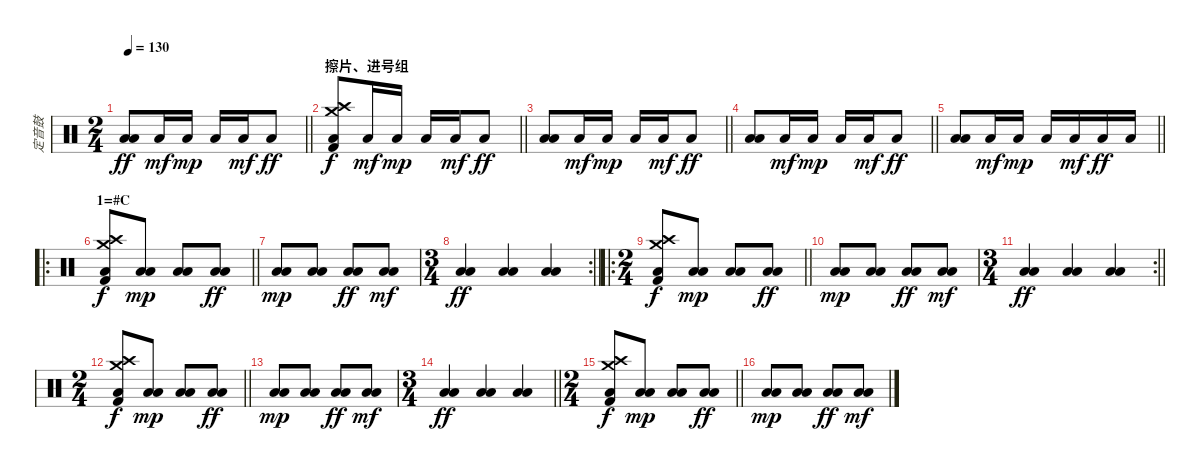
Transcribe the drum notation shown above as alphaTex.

\track ("定音鼓" "定音鼓") {instrument percussion}
\staff {score}
\articulation defaults
\ts (2 4)
\tempo 130
\clef neutral
\barLineRight lightlight
\ks c
("Low Floor Tom (hit)" "Low Floor Tom (hit)").8{dy ff} "Low Floor Tom (hit)".16{dy mf} "Low Floor Tom (hit)".16{dy mp} "Low Floor Tom (hit)".16 "Low Floor Tom (hit)".16{dy mf} "Low Floor Tom (hit)".8{dy ff} |
\section ("" "擦片、进号组")
\barLineRight lightlight
("Crash high (hit)" "Crash medium (hit)" "Kick (hit) 2" "Low Floor Tom (hit)").8{dy f} "Low Floor Tom (hit)".16{dy mf} "Low Floor Tom (hit)".16{dy mp} "Low Floor Tom (hit)".16 "Low Floor Tom (hit)".16{dy mf} "Low Floor Tom (hit)".8{dy ff} |
\barLineRight lightlight
("Low Floor Tom (hit)" "Low Floor Tom (hit)").8 "Low Floor Tom (hit)".16{dy mf} "Low Floor Tom (hit)".16{dy mp} "Low Floor Tom (hit)".16 "Low Floor Tom (hit)".16{dy mf} "Low Floor Tom (hit)".8{dy ff} |
\barLineRight lightlight
("Low Floor Tom (hit)" "Low Floor Tom (hit)").8 "Low Floor Tom (hit)".16{dy mf} "Low Floor Tom (hit)".16{dy mp} "Low Floor Tom (hit)".16 "Low Floor Tom (hit)".16{dy mf} "Low Floor Tom (hit)".8{dy ff} |
\barLineRight lightlight
("Low Floor Tom (hit)" "Low Floor Tom (hit)").8 "Low Floor Tom (hit)".16{dy mf} "Low Floor Tom (hit)".16{dy mp} "Low Floor Tom (hit)".16 "Low Floor Tom (hit)".16{dy mf} "Low Floor Tom (hit)".16{dy ff} "Low Floor Tom (hit)".16 |
\ro
\section ("" "1=#C")
\barLineRight lightlight
("Crash high (hit)" "Crash medium (hit)" "Kick (hit) 2" "Low Floor Tom (hit)").8{dy f} ("Low Floor Tom (hit)" "Low Floor Tom (hit)").8{dy mp} ("Low Floor Tom (hit)" "Low Floor Tom (hit)").8 ("Low Floor Tom (hit)" "Low Floor Tom (hit)").8{dy ff} |
("Low Floor Tom (hit)" "Low Floor Tom (hit)").8{dy mp} ("Low Floor Tom (hit)" "Low Floor Tom (hit)").8 ("Low Floor Tom (hit)" "Low Floor Tom (hit)").8{dy ff} ("Low Floor Tom (hit)" "Low Floor Tom (hit)").8{dy mf} |
\rc 2
\ts (3 4)
\barLineRight lightlight
("Low Floor Tom (hit)" "Low Floor Tom (hit)").4{dy ff} ("Low Floor Tom (hit)" "Low Floor Tom (hit)").4 ("Low Floor Tom (hit)" "Low Floor Tom (hit)").4 |
\ro
\ts (2 4)
\barLineRight lightlight
("Crash high (hit)" "Crash medium (hit)" "Kick (hit) 2" "Low Floor Tom (hit)").8{dy f} ("Low Floor Tom (hit)" "Low Floor Tom (hit)").8{dy mp} ("Low Floor Tom (hit)" "Low Floor Tom (hit)").8 ("Low Floor Tom (hit)" "Low Floor Tom (hit)").8{dy ff} |
("Low Floor Tom (hit)" "Low Floor Tom (hit)").8{dy mp} ("Low Floor Tom (hit)" "Low Floor Tom (hit)").8 ("Low Floor Tom (hit)" "Low Floor Tom (hit)").8{dy ff} ("Low Floor Tom (hit)" "Low Floor Tom (hit)").8{dy mf} |
\rc 2
\ts (3 4)
\barLineRight lightlight
("Low Floor Tom (hit)" "Low Floor Tom (hit)").4{dy ff} ("Low Floor Tom (hit)" "Low Floor Tom (hit)").4 ("Low Floor Tom (hit)" "Low Floor Tom (hit)").4 |
\ts (2 4)
\barLineRight lightlight
("Crash high (hit)" "Crash medium (hit)" "Kick (hit) 2" "Low Floor Tom (hit)").8{dy f} ("Low Floor Tom (hit)" "Low Floor Tom (hit)").8{dy mp} ("Low Floor Tom (hit)" "Low Floor Tom (hit)").8 ("Low Floor Tom (hit)" "Low Floor Tom (hit)").8{dy ff} |
("Low Floor Tom (hit)" "Low Floor Tom (hit)").8{dy mp} ("Low Floor Tom (hit)" "Low Floor Tom (hit)").8 ("Low Floor Tom (hit)" "Low Floor Tom (hit)").8{dy ff} ("Low Floor Tom (hit)" "Low Floor Tom (hit)").8{dy mf} |
\ts (3 4)
\barLineRight lightlight
("Low Floor Tom (hit)" "Low Floor Tom (hit)").4{dy ff} ("Low Floor Tom (hit)" "Low Floor Tom (hit)").4 ("Low Floor Tom (hit)" "Low Floor Tom (hit)").4 |
\ts (2 4)
\barLineRight lightlight
("Crash high (hit)" "Crash medium (hit)" "Kick (hit) 2" "Low Floor Tom (hit)").8{dy f} ("Low Floor Tom (hit)" "Low Floor Tom (hit)").8{dy mp} ("Low Floor Tom (hit)" "Low Floor Tom (hit)").8 ("Low Floor Tom (hit)" "Low Floor Tom (hit)").8{dy ff} |
("Low Floor Tom (hit)" "Low Floor Tom (hit)").8{dy mp} ("Low Floor Tom (hit)" "Low Floor Tom (hit)").8 ("Low Floor Tom (hit)" "Low Floor Tom (hit)").8{dy ff} ("Low Floor Tom (hit)" "Low Floor Tom (hit)").8{dy mf}
